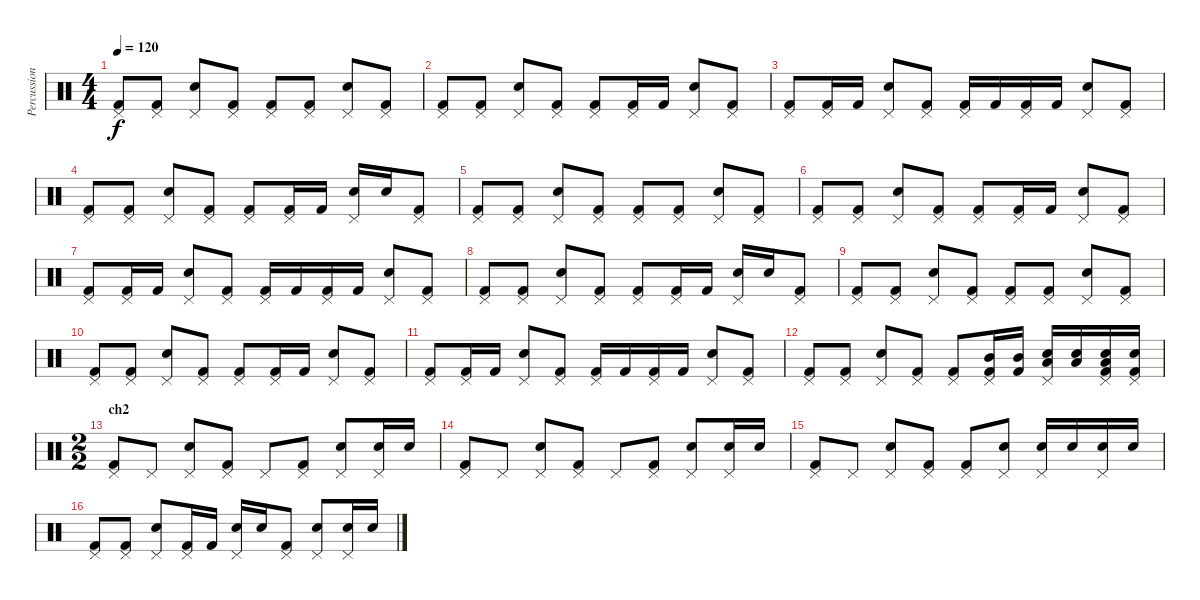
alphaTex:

\track ("Percussion" "Percussion") {instrument percussion}
\staff {score}
\articulation defaults
\ts (4 4)
\tempo 120
\clef neutral
\ks c
("Kick (hit) 2" "Pedal Hi-Hat (hit)").8{dy f} ("Kick (hit) 2" "Pedal Hi-Hat (hit)").8 ("Electric Snare (hit)" "Pedal Hi-Hat (hit)").8 ("Kick (hit) 2" "Pedal Hi-Hat (hit)").8 ("Kick (hit) 2" "Pedal Hi-Hat (hit)").8 ("Kick (hit) 2" "Pedal Hi-Hat (hit)").8 ("Electric Snare (hit)" "Pedal Hi-Hat (hit)").8 ("Kick (hit) 2" "Pedal Hi-Hat (hit)").8 |
("Kick (hit) 2" "Pedal Hi-Hat (hit)").8 ("Kick (hit) 2" "Pedal Hi-Hat (hit)").8 ("Electric Snare (hit)" "Pedal Hi-Hat (hit)").8 ("Kick (hit) 2" "Pedal Hi-Hat (hit)").8 ("Kick (hit) 2" "Pedal Hi-Hat (hit)").8 ("Kick (hit) 2" "Pedal Hi-Hat (hit)").16 "Kick (hit) 2".16 ("Electric Snare (hit)" "Pedal Hi-Hat (hit)").8 ("Kick (hit) 2" "Pedal Hi-Hat (hit)").8 |
("Kick (hit) 2" "Pedal Hi-Hat (hit)").8 ("Kick (hit) 2" "Pedal Hi-Hat (hit)").16 "Kick (hit) 2".16 ("Electric Snare (hit)" "Pedal Hi-Hat (hit)").8 ("Kick (hit) 2" "Pedal Hi-Hat (hit)").8 ("Kick (hit) 2" "Pedal Hi-Hat (hit)").16 "Kick (hit) 2".16 ("Kick (hit) 2" "Pedal Hi-Hat (hit)").16 "Kick (hit) 2".16 ("Electric Snare (hit)" "Pedal Hi-Hat (hit)").8 ("Kick (hit) 2" "Pedal Hi-Hat (hit)").8 |
("Kick (hit) 2" "Pedal Hi-Hat (hit)").8 ("Kick (hit) 2" "Pedal Hi-Hat (hit)").8 ("Electric Snare (hit)" "Pedal Hi-Hat (hit)").8 ("Kick (hit) 2" "Pedal Hi-Hat (hit)").8 ("Kick (hit) 2" "Pedal Hi-Hat (hit)").8 ("Kick (hit) 2" "Pedal Hi-Hat (hit)").16 "Kick (hit) 2".16 ("Electric Snare (hit)" "Pedal Hi-Hat (hit)").16 "Electric Snare (hit)".16 ("Kick (hit) 2" "Pedal Hi-Hat (hit)").8 |
("Kick (hit) 2" "Pedal Hi-Hat (hit)").8 ("Kick (hit) 2" "Pedal Hi-Hat (hit)").8 ("Electric Snare (hit)" "Pedal Hi-Hat (hit)").8 ("Kick (hit) 2" "Pedal Hi-Hat (hit)").8 ("Kick (hit) 2" "Pedal Hi-Hat (hit)").8 ("Kick (hit) 2" "Pedal Hi-Hat (hit)").8 ("Electric Snare (hit)" "Pedal Hi-Hat (hit)").8 ("Kick (hit) 2" "Pedal Hi-Hat (hit)").8 |
("Kick (hit) 2" "Pedal Hi-Hat (hit)").8 ("Kick (hit) 2" "Pedal Hi-Hat (hit)").8 ("Electric Snare (hit)" "Pedal Hi-Hat (hit)").8 ("Kick (hit) 2" "Pedal Hi-Hat (hit)").8 ("Kick (hit) 2" "Pedal Hi-Hat (hit)").8 ("Kick (hit) 2" "Pedal Hi-Hat (hit)").16 "Kick (hit) 2".16 ("Electric Snare (hit)" "Pedal Hi-Hat (hit)").8 ("Kick (hit) 2" "Pedal Hi-Hat (hit)").8 |
("Kick (hit) 2" "Pedal Hi-Hat (hit)").8 ("Kick (hit) 2" "Pedal Hi-Hat (hit)").16 "Kick (hit) 2".16 ("Electric Snare (hit)" "Pedal Hi-Hat (hit)").8 ("Kick (hit) 2" "Pedal Hi-Hat (hit)").8 ("Kick (hit) 2" "Pedal Hi-Hat (hit)").16 "Kick (hit) 2".16 ("Kick (hit) 2" "Pedal Hi-Hat (hit)").16 "Kick (hit) 2".16 ("Electric Snare (hit)" "Pedal Hi-Hat (hit)").8 ("Kick (hit) 2" "Pedal Hi-Hat (hit)").8 |
("Kick (hit) 2" "Pedal Hi-Hat (hit)").8 ("Kick (hit) 2" "Pedal Hi-Hat (hit)").8 ("Electric Snare (hit)" "Pedal Hi-Hat (hit)").8 ("Kick (hit) 2" "Pedal Hi-Hat (hit)").8 ("Kick (hit) 2" "Pedal Hi-Hat (hit)").8 ("Kick (hit) 2" "Pedal Hi-Hat (hit)").16 "Kick (hit) 2".16 ("Electric Snare (hit)" "Pedal Hi-Hat (hit)").16 "Electric Snare (hit)".16 ("Kick (hit) 2" "Pedal Hi-Hat (hit)").8 |
("Kick (hit) 2" "Pedal Hi-Hat (hit)").8 ("Kick (hit) 2" "Pedal Hi-Hat (hit)").8 ("Electric Snare (hit)" "Pedal Hi-Hat (hit)").8 ("Kick (hit) 2" "Pedal Hi-Hat (hit)").8 ("Kick (hit) 2" "Pedal Hi-Hat (hit)").8 ("Kick (hit) 2" "Pedal Hi-Hat (hit)").8 ("Electric Snare (hit)" "Pedal Hi-Hat (hit)").8 ("Kick (hit) 2" "Pedal Hi-Hat (hit)").8 |
("Kick (hit) 2" "Pedal Hi-Hat (hit)").8 ("Kick (hit) 2" "Pedal Hi-Hat (hit)").8 ("Electric Snare (hit)" "Pedal Hi-Hat (hit)").8 ("Kick (hit) 2" "Pedal Hi-Hat (hit)").8 ("Kick (hit) 2" "Pedal Hi-Hat (hit)").8 ("Kick (hit) 2" "Pedal Hi-Hat (hit)").16 "Kick (hit) 2".16 ("Electric Snare (hit)" "Pedal Hi-Hat (hit)").8 ("Kick (hit) 2" "Pedal Hi-Hat (hit)").8 |
("Kick (hit) 2" "Pedal Hi-Hat (hit)").8 ("Kick (hit) 2" "Pedal Hi-Hat (hit)").16 "Kick (hit) 2".16 ("Electric Snare (hit)" "Pedal Hi-Hat (hit)").8 ("Kick (hit) 2" "Pedal Hi-Hat (hit)").8 ("Kick (hit) 2" "Pedal Hi-Hat (hit)").16 "Kick (hit) 2".16 ("Kick (hit) 2" "Pedal Hi-Hat (hit)").16 "Kick (hit) 2".16 ("Electric Snare (hit)" "Pedal Hi-Hat (hit)").8 ("Kick (hit) 2" "Pedal Hi-Hat (hit)").8 |
("Kick (hit) 2" "Pedal Hi-Hat (hit)").8 ("Kick (hit) 2" "Pedal Hi-Hat (hit)").8 ("Electric Snare (hit)" "Pedal Hi-Hat (hit)").8 ("Kick (hit) 2" "Pedal Hi-Hat (hit)").8 ("Kick (hit) 2" "Pedal Hi-Hat (hit)").8 ("Kick (hit) 2" "Pedal Hi-Hat (hit)" "Mid Tom (hit)").16 ("Kick (hit) 2" "Mid Tom (hit)").16 ("Electric Snare (hit)" "Pedal Hi-Hat (hit)" "Low Tom (hit)").16 ("Electric Snare (hit)" "Low Tom (hit)").16 ("Electric Snare (hit)" "Kick (hit) 2" "Pedal Hi-Hat (hit)" "Low Tom (hit)").16 ("Electric Snare (hit)" "Kick (hit) 2" "Pedal Hi-Hat (hit)").16 |
\ts (2 2)
\section ("" "ch2")
("Kick (hit) 2" "Pedal Hi-Hat (hit)").8 "Pedal Hi-Hat (hit)".8 ("Electric Snare (hit)" "Pedal Hi-Hat (hit)").8 ("Kick (hit) 2" "Pedal Hi-Hat (hit)").8 "Pedal Hi-Hat (hit)".8 ("Kick (hit) 2" "Pedal Hi-Hat (hit)").8 ("Electric Snare (hit)" "Pedal Hi-Hat (hit)").8 ("Electric Snare (hit)" "Pedal Hi-Hat (hit)").16 "Electric Snare (hit)".16 |
("Kick (hit) 2" "Pedal Hi-Hat (hit)").8 "Pedal Hi-Hat (hit)".8 ("Electric Snare (hit)" "Pedal Hi-Hat (hit)").8 ("Kick (hit) 2" "Pedal Hi-Hat (hit)").8 "Pedal Hi-Hat (hit)".8 ("Kick (hit) 2" "Pedal Hi-Hat (hit)").8 ("Electric Snare (hit)" "Pedal Hi-Hat (hit)").8 ("Electric Snare (hit)" "Pedal Hi-Hat (hit)").16 "Electric Snare (hit)".16 |
("Kick (hit) 2" "Pedal Hi-Hat (hit)").8 "Pedal Hi-Hat (hit)".8 ("Electric Snare (hit)" "Pedal Hi-Hat (hit)").8 ("Kick (hit) 2" "Pedal Hi-Hat (hit)").8 ("Kick (hit) 2" "Pedal Hi-Hat (hit)").8 ("Electric Snare (hit)" "Pedal Hi-Hat (hit)").8 ("Electric Snare (hit)" "Pedal Hi-Hat (hit)").16 "Electric Snare (hit)".16 ("Electric Snare (hit)" "Pedal Hi-Hat (hit)").16 "Electric Snare (hit)".16 |
("Kick (hit) 2" "Pedal Hi-Hat (hit)").8 ("Kick (hit) 2" "Pedal Hi-Hat (hit)").8 ("Electric Snare (hit)" "Pedal Hi-Hat (hit)").8 ("Kick (hit) 2" "Pedal Hi-Hat (hit)").16 "Kick (hit) 2".16 ("Electric Snare (hit)" "Pedal Hi-Hat (hit)").16 "Electric Snare (hit)".16 ("Kick (hit) 2" "Pedal Hi-Hat (hit)").8 ("Electric Snare (hit)" "Pedal Hi-Hat (hit)").8 ("Electric Snare (hit)" "Pedal Hi-Hat (hit)").16 "Electric Snare (hit)".16
